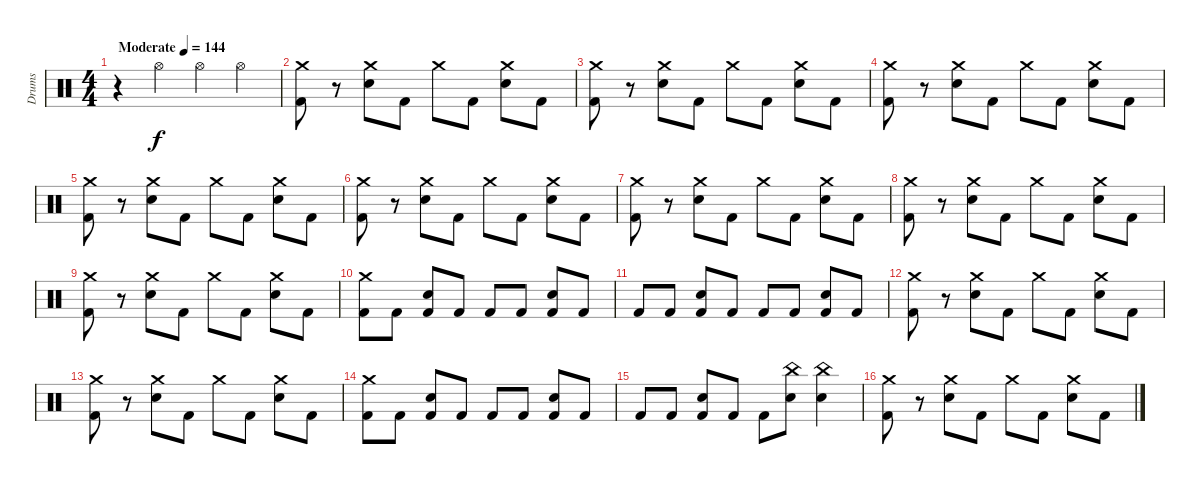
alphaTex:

\track ("Drums" "Drums") {instrument percussion}
\staff
\articulation defaults
\ts (4 4)
\tempo (144 "Moderate")
\clef neutral
\ks c
r.4{dy f} "Hi-Hat (open)".4 "Hi-Hat (open)".4 "Hi-Hat (open)".4 |
("Crash medium (hit)" "Kick (hit) 2").8 r.8 ("Crash medium (hit)" "Electric Snare (hit)").8 "Kick (hit) 2".8 "Crash medium (hit)".8 "Kick (hit) 2".8 ("Crash medium (hit)" "Electric Snare (hit)").8 "Kick (hit) 2".8 |
("Crash medium (hit)" "Kick (hit) 2").8 r.8 ("Crash medium (hit)" "Electric Snare (hit)").8 "Kick (hit) 2".8 "Crash medium (hit)".8 "Kick (hit) 2".8 ("Crash medium (hit)" "Electric Snare (hit)").8 "Kick (hit) 2".8 |
("Crash medium (hit)" "Kick (hit) 2").8 r.8 ("Crash medium (hit)" "Electric Snare (hit)").8 "Kick (hit) 2".8 "Crash medium (hit)".8 "Kick (hit) 2".8 ("Crash medium (hit)" "Electric Snare (hit)").8 "Kick (hit) 2".8 |
("Crash medium (hit)" "Kick (hit) 2").8 r.8 ("Crash medium (hit)" "Electric Snare (hit)").8 "Kick (hit) 2".8 "Crash medium (hit)".8 "Kick (hit) 2".8 ("Crash medium (hit)" "Electric Snare (hit)").8 "Kick (hit) 2".8 |
("Crash medium (hit)" "Kick (hit) 2").8 r.8 ("Crash medium (hit)" "Electric Snare (hit)").8 "Kick (hit) 2".8 "Crash medium (hit)".8 "Kick (hit) 2".8 ("Crash medium (hit)" "Electric Snare (hit)").8 "Kick (hit) 2".8 |
("Crash medium (hit)" "Kick (hit) 2").8 r.8 ("Crash medium (hit)" "Electric Snare (hit)").8 "Kick (hit) 2".8 "Crash medium (hit)".8 "Kick (hit) 2".8 ("Crash medium (hit)" "Electric Snare (hit)").8 "Kick (hit) 2".8 |
("Crash medium (hit)" "Kick (hit) 2").8 r.8 ("Crash medium (hit)" "Electric Snare (hit)").8 "Kick (hit) 2".8 "Crash medium (hit)".8 "Kick (hit) 2".8 ("Crash medium (hit)" "Electric Snare (hit)").8 "Kick (hit) 2".8 |
("Crash medium (hit)" "Kick (hit) 2").8 r.8 ("Crash medium (hit)" "Electric Snare (hit)").8 "Kick (hit) 2".8 "Crash medium (hit)".8 "Kick (hit) 2".8 ("Crash medium (hit)" "Electric Snare (hit)").8 "Kick (hit) 2".8 |
("Crash medium (hit)" "Kick (hit) 2").8 "Kick (hit) 2".8 ("Electric Snare (hit)" "Kick (hit) 2").8 "Kick (hit) 2".8 "Kick (hit) 2".8 "Kick (hit) 2".8 ("Electric Snare (hit)" "Kick (hit) 2").8 "Kick (hit) 2".8 |
"Kick (hit) 2".8 "Kick (hit) 2".8 ("Electric Snare (hit)" "Kick (hit) 2").8 "Kick (hit) 2".8 "Kick (hit) 2".8 "Kick (hit) 2".8 ("Electric Snare (hit)" "Kick (hit) 2").8 "Kick (hit) 2".8 |
("Crash medium (hit)" "Kick (hit) 2").8 r.8 ("Crash medium (hit)" "Electric Snare (hit)").8 "Kick (hit) 2".8 "Crash medium (hit)".8 "Kick (hit) 2".8 ("Crash medium (hit)" "Electric Snare (hit)").8 "Kick (hit) 2".8 |
("Crash medium (hit)" "Kick (hit) 2").8 r.8 ("Crash medium (hit)" "Electric Snare (hit)").8 "Kick (hit) 2".8 "Crash medium (hit)".8 "Kick (hit) 2".8 ("Crash medium (hit)" "Electric Snare (hit)").8 "Kick (hit) 2".8 |
("Crash medium (hit)" "Kick (hit) 2").8 "Kick (hit) 2".8 ("Electric Snare (hit)" "Kick (hit) 2").8 "Kick (hit) 2".8 "Kick (hit) 2".8 "Kick (hit) 2".8 ("Electric Snare (hit)" "Kick (hit) 2").8 "Kick (hit) 2".8 |
"Kick (hit) 2".8 "Kick (hit) 2".8 ("Electric Snare (hit)" "Kick (hit) 2").8 "Kick (hit) 2".8 "Kick (hit) 2".8 ("China (hit)" "Electric Snare (hit)").8 ("China (hit)" "Electric Snare (hit)").4 |
("Crash medium (hit)" "Kick (hit) 2").8 r.8 ("Crash medium (hit)" "Electric Snare (hit)").8 "Kick (hit) 2".8 "Crash medium (hit)".8 "Kick (hit) 2".8 ("Crash medium (hit)" "Electric Snare (hit)").8 "Kick (hit) 2".8
